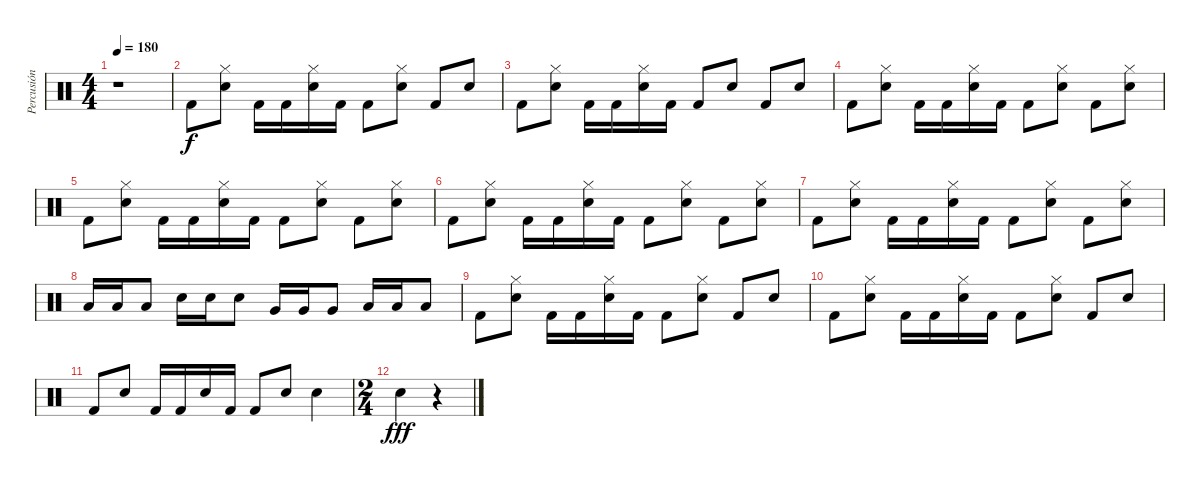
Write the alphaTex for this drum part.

\track ("Percusión" "Percusión") {instrument percussion}
\staff {score}
\articulation defaults
\ts (4 4)
\tempo 180
\clef neutral
\ks c
r.1{dy f} |
"Kick (hit) 2".8 ("Electric Snare (hit)" "Hi-Hat (closed)").8 "Kick (hit) 2".16 "Kick (hit) 2".16 ("Electric Snare (hit)" "Hi-Hat (closed)").16 "Kick (hit) 2".16 "Kick (hit) 2".8 ("Electric Snare (hit)" "Hi-Hat (closed)").8 "Kick (hit) 2".8 "Electric Snare (hit)".8 |
"Kick (hit) 2".8 ("Electric Snare (hit)" "Hi-Hat (closed)").8 "Kick (hit) 2".16 "Kick (hit) 2".16 ("Electric Snare (hit)" "Hi-Hat (closed)").16 "Kick (hit) 2".16 "Kick (hit) 2".8 "Electric Snare (hit)".8 "Kick (hit) 2".8 "Electric Snare (hit)".8 |
"Kick (hit) 2".8 ("Electric Snare (hit)" "Hi-Hat (closed)").8 "Kick (hit) 2".16 "Kick (hit) 2".16 ("Electric Snare (hit)" "Hi-Hat (closed)").16 "Kick (hit) 2".16 "Kick (hit) 2".8 ("Electric Snare (hit)" "Hi-Hat (closed)").8 "Kick (hit) 2".8 ("Electric Snare (hit)" "Hi-Hat (closed)").8 |
"Kick (hit) 2".8 ("Electric Snare (hit)" "Hi-Hat (closed)").8 "Kick (hit) 2".16 "Kick (hit) 2".16 ("Electric Snare (hit)" "Hi-Hat (closed)").16 "Kick (hit) 2".16 "Kick (hit) 2".8 ("Electric Snare (hit)" "Hi-Hat (closed)").8 "Kick (hit) 2".8 ("Electric Snare (hit)" "Hi-Hat (closed)").8 |
"Kick (hit) 2".8 ("Electric Snare (hit)" "Hi-Hat (closed)").8 "Kick (hit) 2".16 "Kick (hit) 2".16 ("Electric Snare (hit)" "Hi-Hat (closed)").16 "Kick (hit) 2".16 "Kick (hit) 2".8 ("Electric Snare (hit)" "Hi-Hat (closed)").8 "Kick (hit) 2".8 ("Electric Snare (hit)" "Hi-Hat (closed)").8 |
"Kick (hit) 2".8 ("Electric Snare (hit)" "Hi-Hat (closed)").8 "Kick (hit) 2".16 "Kick (hit) 2".16 ("Electric Snare (hit)" "Hi-Hat (closed)").16 "Kick (hit) 2".16 "Kick (hit) 2".8 ("Electric Snare (hit)" "Hi-Hat (closed)").8 "Kick (hit) 2".8 ("Electric Snare (hit)" "Hi-Hat (closed)").8 |
"Low Floor Tom (hit)".16 "Low Floor Tom (hit)".16 "Low Floor Tom (hit)".8 "Electric Snare (hit)".16 "Electric Snare (hit)".16 "Electric Snare (hit)".8 "Very Low Tom (hit)".16 "Very Low Tom (hit)".16 "Very Low Tom (hit)".8 "Low Tom (hit)".16 "Low Tom (hit)".16 "Low Tom (hit)".8 |
"Kick (hit) 2".8 ("Electric Snare (hit)" "Hi-Hat (closed)").8 "Kick (hit) 2".16 "Kick (hit) 2".16 ("Electric Snare (hit)" "Hi-Hat (closed)").16 "Kick (hit) 2".16 "Kick (hit) 2".8 ("Electric Snare (hit)" "Hi-Hat (closed)").8 "Kick (hit) 2".8 "Electric Snare (hit)".8 |
"Kick (hit) 2".8 ("Electric Snare (hit)" "Hi-Hat (closed)").8 "Kick (hit) 2".16 "Kick (hit) 2".16 ("Electric Snare (hit)" "Hi-Hat (closed)").16 "Kick (hit) 2".16 "Kick (hit) 2".8 ("Electric Snare (hit)" "Hi-Hat (closed)").8 "Kick (hit) 2".8 "Electric Snare (hit)".8 |
"Kick (hit) 2".8 "Electric Snare (hit)".8 "Kick (hit) 2".16 "Kick (hit) 2".16 "Electric Snare (hit)".16 "Kick (hit) 2".16 "Kick (hit) 2".8 "Electric Snare (hit)".8 "Electric Snare (hit)".4 |
\ts (2 4)
"Electric Snare (hit)".4{dy fff} r.4
